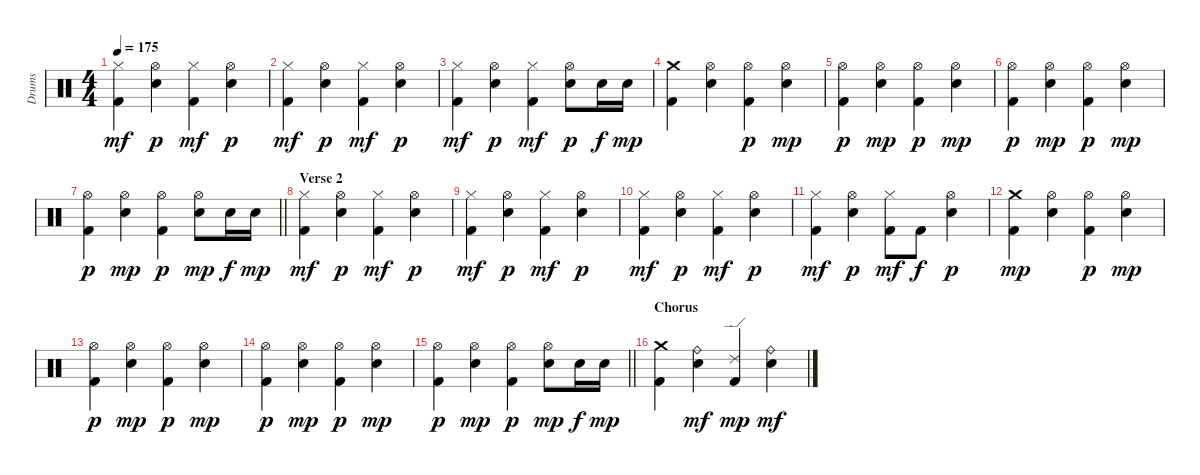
\track ("Drums" "Drums") {instrument percussion}
\staff {score}
\articulation defaults
\ts (4 4)
\tempo 175
\clef neutral
\ks c
("Hi-Hat (closed)" "Kick (hit) 2").4{dy mf} ("Hi-Hat (open)" "Electric Snare (hit)").4{dy p} ("Hi-Hat (closed)" "Kick (hit) 2").4{dy mf} ("Hi-Hat (open)" "Electric Snare (hit)").4{dy p} |
("Hi-Hat (closed)" "Kick (hit) 2").4{dy mf} ("Hi-Hat (open)" "Electric Snare (hit)").4{dy p} ("Hi-Hat (closed)" "Kick (hit) 2").4{dy mf} ("Hi-Hat (open)" "Electric Snare (hit)").4{dy p} |
("Hi-Hat (closed)" "Kick (hit) 2").4{dy mf} ("Hi-Hat (open)" "Electric Snare (hit)").4{dy p} ("Hi-Hat (closed)" "Kick (hit) 2").4{dy mf} ("Hi-Hat (open)" "Electric Snare (hit)").8{dy p} "Electric Snare (hit)".16{dy f} "Electric Snare (hit)".16{dy mp} |
("Crash medium (hit)" "Kick (hit) 2").4 ("Hi-Hat (open)" "Electric Snare (hit)").4 ("Hi-Hat (open)" "Kick (hit) 2").4{dy p} ("Hi-Hat (open)" "Electric Snare (hit)").4{dy mp} |
("Hi-Hat (open)" "Kick (hit) 2").4{dy p} ("Hi-Hat (open)" "Electric Snare (hit)").4{dy mp} ("Hi-Hat (open)" "Kick (hit) 2").4{dy p} ("Hi-Hat (open)" "Electric Snare (hit)").4{dy mp} |
("Hi-Hat (open)" "Kick (hit) 2").4{dy p} ("Hi-Hat (open)" "Electric Snare (hit)").4{dy mp} ("Hi-Hat (open)" "Kick (hit) 2").4{dy p} ("Hi-Hat (open)" "Electric Snare (hit)").4{dy mp} |
\barLineRight lightlight
("Hi-Hat (open)" "Kick (hit) 2").4{dy p} ("Hi-Hat (open)" "Electric Snare (hit)").4{dy mp} ("Hi-Hat (open)" "Kick (hit) 2").4{dy p} ("Hi-Hat (open)" "Electric Snare (hit)").8{dy mp} "Electric Snare (hit)".16{dy f} "Electric Snare (hit)".16{dy mp} |
\section ("" "Verse 2")
("Hi-Hat (closed)" "Kick (hit) 2").4{dy mf} ("Hi-Hat (open)" "Electric Snare (hit)").4{dy p} ("Hi-Hat (closed)" "Kick (hit) 2").4{dy mf} ("Hi-Hat (open)" "Electric Snare (hit)").4{dy p} |
("Hi-Hat (closed)" "Kick (hit) 2").4{dy mf} ("Hi-Hat (open)" "Electric Snare (hit)").4{dy p} ("Hi-Hat (closed)" "Kick (hit) 2").4{dy mf} ("Hi-Hat (open)" "Electric Snare (hit)").4{dy p} |
("Hi-Hat (closed)" "Kick (hit) 2").4{dy mf} ("Hi-Hat (open)" "Electric Snare (hit)").4{dy p} ("Hi-Hat (closed)" "Kick (hit) 2").4{dy mf} ("Hi-Hat (open)" "Electric Snare (hit)").4{dy p} |
("Hi-Hat (closed)" "Kick (hit) 2").4{dy mf} ("Hi-Hat (open)" "Electric Snare (hit)").4{dy p} ("Hi-Hat (closed)" "Kick (hit) 2").8{dy mf} "Kick (hit) 2".8{dy f} ("Hi-Hat (open)" "Electric Snare (hit)").4{dy p} |
("Crash medium (hit)" "Kick (hit) 2").4{dy mp} ("Hi-Hat (open)" "Electric Snare (hit)").4 ("Hi-Hat (open)" "Kick (hit) 2").4{dy p} ("Hi-Hat (open)" "Electric Snare (hit)").4{dy mp} |
("Hi-Hat (open)" "Kick (hit) 2").4{dy p} ("Hi-Hat (open)" "Electric Snare (hit)").4{dy mp} ("Hi-Hat (open)" "Kick (hit) 2").4{dy p} ("Hi-Hat (open)" "Electric Snare (hit)").4{dy mp} |
("Hi-Hat (open)" "Kick (hit) 2").4{dy p} ("Hi-Hat (open)" "Electric Snare (hit)").4{dy mp} ("Hi-Hat (open)" "Kick (hit) 2").4{dy p} ("Hi-Hat (open)" "Electric Snare (hit)").4{dy mp} |
\barLineRight lightlight
("Hi-Hat (open)" "Kick (hit) 2").4{dy p} ("Hi-Hat (open)" "Electric Snare (hit)").4{dy mp} ("Hi-Hat (open)" "Kick (hit) 2").4{dy p} ("Hi-Hat (open)" "Electric Snare (hit)").8{dy mp} "Electric Snare (hit)".16{dy f} "Electric Snare (hit)".16{dy mp} |
\section ("" "Chorus")
("Crash medium (hit)" "Kick (hit) 2").4 ("Ride (bell)" "Electric Snare (hit)").4{dy mf} ("Ride (edge) 2" "Kick (hit) 2").4{dy mp} ("Ride (bell)" "Electric Snare (hit)").4{dy mf}
